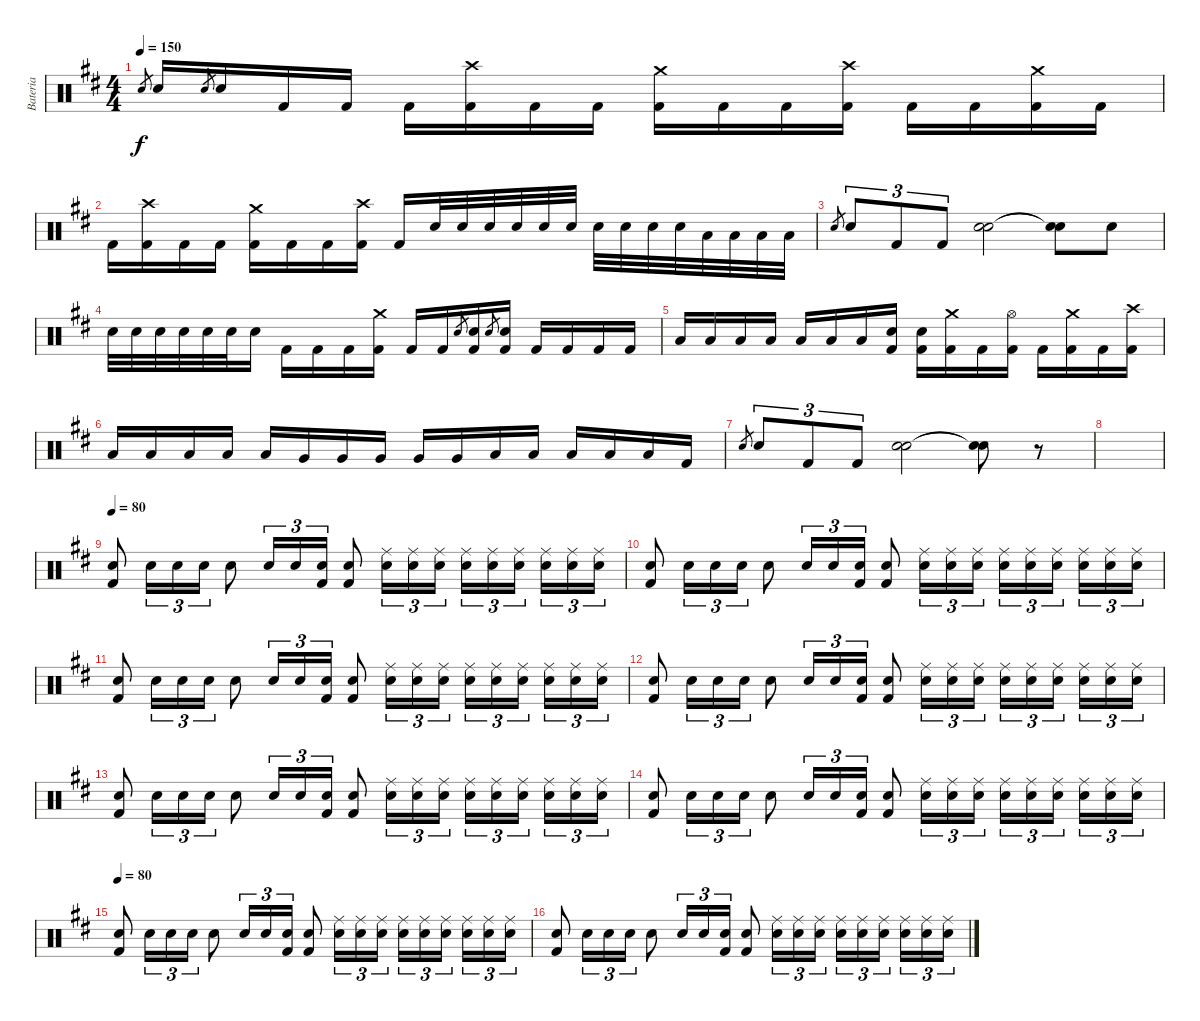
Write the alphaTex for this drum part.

\track ("Bateria" "Bateria") {instrument percussion}
\staff {score}
\articulation defaults
\ts (4 4)
\tempo 150
\clef neutral
\ks d "Electric Snare (hit)".8{gr dy f} "Electric Snare (hit)".16 "Electric Snare (hit)".8{gr} "Electric Snare (hit)".16 "Kick (hit) 2".16 "Kick (hit) 2".16 "Kick (hit) 2".16
("Crash high (hit)" "Kick (hit) 2").16 "Kick (hit) 2".16 "Kick (hit) 2".16 ("Crash medium (hit)" "Kick (hit) 2").16 "Kick (hit) 2".16 "Kick (hit) 2".16 ("Crash high (hit)" "Kick (hit) 2").16 "Kick (hit) 2".16 "Kick (hit) 2".16 ("Crash medium (hit)" "Kick (hit) 2").16 "Kick (hit) 2".16 |
"Kick (hit) 2".16 ("Crash high (hit)" "Kick (hit) 2").16 "Kick (hit) 2".16 "Kick (hit) 2".16 ("Crash medium (hit)" "Kick (hit) 2").16 "Kick (hit) 2".16 "Kick (hit) 2".16 ("Crash high (hit)" "Kick (hit) 2").16 "Kick (hit) 2".16 "Electric Snare (hit)".32 "Electric Snare (hit)".32 "Electric Snare (hit)".32 "Electric Snare (hit)".32 "Electric Snare (hit)".32 "Snare (hit) 2".32 "Snare (hit) 2".32 "Snare (hit) 2".32 "Snare (hit) 2".32 "Snare (hit) 2".32 "Low Floor Tom (hit)".32 "Low Floor Tom (hit)".32 "Low Floor Tom (hit)".32 "Low Floor Tom (hit)".32 |
"Electric Snare (hit)".8{gr} "Electric Snare (hit)".8{tu (3 2)} "Kick (hit) 2".8{tu (3 2)} "Kick (hit) 2".8{tu (3 2)} ("Electric Snare (hit)" "Snare (hit) 2").2 ("Snare (hit)"{t} "Snare (hit)"{t}).8 "Snare (hit) 2".8 |
"Electric Snare (hit)".32 "Electric Snare (hit)".32 "Electric Snare (hit)".32 "Electric Snare (hit)".32 "Electric Snare (hit)".32 "Electric Snare (hit)".32 "Electric Snare (hit)".16 "Kick (hit) 2".16 "Kick (hit) 2".16 "Kick (hit) 2".16 ("Crash medium (hit)" "Kick (hit) 2").16 "Kick (hit) 2".16 "Kick (hit) 2".16 "Electric Snare (hit)".8{gr} ("Electric Snare (hit)" "Kick (hit) 2").16 "Snare (hit) 2".8{gr} ("Snare (hit) 2" "Kick (hit) 2").16 "Kick (hit) 2".16 "Kick (hit) 2".16 "Kick (hit) 2".16 "Kick (hit) 2".16 |
"Low Floor Tom (hit)".16 "Low Floor Tom (hit)".16 "Low Floor Tom (hit)".16 "Low Floor Tom (hit)".16 "Low Floor Tom (hit)".16 "Low Floor Tom (hit)".16 "Low Floor Tom (hit)".16 ("Kick (hit) 2" "Electric Snare (hit)").16 ("Kick (hit) 2" "Electric Snare (hit)").16 ("Crash medium (hit)" "Kick (hit) 2").16 "Kick (hit) 2".16 ("Hi-Hat (open)" "Kick (hit) 2").16 "Kick (hit) 2".16 ("Crash medium (hit)" "Kick (hit) 2").16 "Kick (hit) 2".16 ("Crash high (hit)" "Kick (hit) 2").16 |
"Low Tom (hit)".16 "Low Tom (hit)".16 "Low Tom (hit)".16 "Low Tom (hit)".16 "Low Tom (hit)".16 "Very Low Tom (hit)".16 "Very Low Tom (hit)".16 "Very Low Tom (hit)".16 "Very Low Tom (hit)".16 "Very Low Tom (hit)".16 "Low Floor Tom (hit)".16 "Low Floor Tom (hit)".16 "Low Floor Tom (hit)".16 "Low Floor Tom (hit)".16 "Low Floor Tom (hit)".16 "Kick (hit) 2".16 |
"Electric Snare (hit)".8{gr} "Electric Snare (hit)".8{tu (3 2)} "Kick (hit) 2".8{tu (3 2)} "Kick (hit) 2".8{tu (3 2)} ("Electric Snare (hit)" "Snare (hit) 2").2 ("Snare (hit)"{t} "Snare (hit)"{t}).8 r.8{volume 0} |
|
\tempo 80
("Kick (hit) 2" "Electric Snare (hit)").8{volume 10} "Electric Snare (hit)".16{tu (3 2)} "Electric Snare (hit)".16{tu (3 2)} "Electric Snare (hit)".16{tu (3 2)} "Electric Snare (hit)".8 "Electric Snare (hit)".16{tu (3 2)} "Electric Snare (hit)".16{tu (3 2)} ("Kick (hit) 2" "Electric Snare (hit)").16{tu (3 2)} ("Kick (hit) 2" "Electric Snare (hit)").8 ("Ride (middle)" "Electric Snare (hit)").16{tu (3 2)} ("Ride (middle)" "Electric Snare (hit)").16{tu (3 2)} ("Ride (middle)" "Electric Snare (hit)").16{tu (3 2)} ("Ride (middle)" "Electric Snare (hit)").16{tu (3 2)} ("Ride (middle)" "Electric Snare (hit)").16{tu (3 2)} ("Ride (middle)" "Electric Snare (hit)").16{tu (3 2) beam splitsecondary} ("Ride (middle)" "Electric Snare (hit)").16{tu (3 2)} ("Ride (middle)" "Electric Snare (hit)").16{tu (3 2)} ("Ride (middle)" "Electric Snare (hit)").16{tu (3 2)} |
("Kick (hit) 2" "Electric Snare (hit)").8 "Electric Snare (hit)".16{tu (3 2)} "Electric Snare (hit)".16{tu (3 2)} "Electric Snare (hit)".16{tu (3 2)} "Electric Snare (hit)".8 "Electric Snare (hit)".16{tu (3 2)} "Electric Snare (hit)".16{tu (3 2)} ("Kick (hit) 2" "Electric Snare (hit)").16{tu (3 2)} ("Kick (hit) 2" "Electric Snare (hit)").8 ("Ride (middle)" "Electric Snare (hit)").16{tu (3 2)} ("Ride (middle)" "Electric Snare (hit)").16{tu (3 2)} ("Ride (middle)" "Electric Snare (hit)").16{tu (3 2)} ("Ride (middle)" "Electric Snare (hit)").16{tu (3 2)} ("Ride (middle)" "Electric Snare (hit)").16{tu (3 2)} ("Ride (middle)" "Electric Snare (hit)").16{tu (3 2) beam splitsecondary} ("Ride (middle)" "Electric Snare (hit)").16{tu (3 2)} ("Ride (middle)" "Electric Snare (hit)").16{tu (3 2)} ("Ride (middle)" "Electric Snare (hit)").16{tu (3 2)} |
("Kick (hit) 2" "Electric Snare (hit)").8 "Electric Snare (hit)".16{tu (3 2)} "Electric Snare (hit)".16{tu (3 2)} "Electric Snare (hit)".16{tu (3 2)} "Electric Snare (hit)".8 "Electric Snare (hit)".16{tu (3 2)} "Electric Snare (hit)".16{tu (3 2)} ("Kick (hit) 2" "Electric Snare (hit)").16{tu (3 2)} ("Kick (hit) 2" "Electric Snare (hit)").8 ("Ride (middle)" "Electric Snare (hit)").16{tu (3 2)} ("Ride (middle)" "Electric Snare (hit)").16{tu (3 2)} ("Ride (middle)" "Electric Snare (hit)").16{tu (3 2)} ("Ride (middle)" "Electric Snare (hit)").16{tu (3 2)} ("Ride (middle)" "Electric Snare (hit)").16{tu (3 2)} ("Ride (middle)" "Electric Snare (hit)").16{tu (3 2) beam splitsecondary} ("Ride (middle)" "Electric Snare (hit)").16{tu (3 2)} ("Ride (middle)" "Electric Snare (hit)").16{tu (3 2)} ("Ride (middle)" "Electric Snare (hit)").16{tu (3 2)} |
("Kick (hit) 2" "Electric Snare (hit)").8 "Electric Snare (hit)".16{tu (3 2)} "Electric Snare (hit)".16{tu (3 2)} "Electric Snare (hit)".16{tu (3 2)} "Electric Snare (hit)".8 "Electric Snare (hit)".16{tu (3 2)} "Electric Snare (hit)".16{tu (3 2)} ("Kick (hit) 2" "Electric Snare (hit)").16{tu (3 2)} ("Kick (hit) 2" "Electric Snare (hit)").8 ("Ride (middle)" "Electric Snare (hit)").16{tu (3 2)} ("Ride (middle)" "Electric Snare (hit)").16{tu (3 2)} ("Ride (middle)" "Electric Snare (hit)").16{tu (3 2)} ("Ride (middle)" "Electric Snare (hit)").16{tu (3 2)} ("Ride (middle)" "Electric Snare (hit)").16{tu (3 2)} ("Ride (middle)" "Electric Snare (hit)").16{tu (3 2) beam splitsecondary} ("Ride (middle)" "Electric Snare (hit)").16{tu (3 2)} ("Ride (middle)" "Electric Snare (hit)").16{tu (3 2)} ("Ride (middle)" "Electric Snare (hit)").16{tu (3 2)} |
("Kick (hit) 2" "Electric Snare (hit)").8 "Electric Snare (hit)".16{tu (3 2)} "Electric Snare (hit)".16{tu (3 2)} "Electric Snare (hit)".16{tu (3 2)} "Electric Snare (hit)".8 "Electric Snare (hit)".16{tu (3 2)} "Electric Snare (hit)".16{tu (3 2)} ("Kick (hit) 2" "Electric Snare (hit)").16{tu (3 2)} ("Kick (hit) 2" "Electric Snare (hit)").8 ("Ride (middle)" "Electric Snare (hit)").16{tu (3 2)} ("Ride (middle)" "Electric Snare (hit)").16{tu (3 2)} ("Ride (middle)" "Electric Snare (hit)").16{tu (3 2)} ("Ride (middle)" "Electric Snare (hit)").16{tu (3 2)} ("Ride (middle)" "Electric Snare (hit)").16{tu (3 2)} ("Ride (middle)" "Electric Snare (hit)").16{tu (3 2) beam splitsecondary} ("Ride (middle)" "Electric Snare (hit)").16{tu (3 2)} ("Ride (middle)" "Electric Snare (hit)").16{tu (3 2)} ("Ride (middle)" "Electric Snare (hit)").16{tu (3 2)} |
("Kick (hit) 2" "Electric Snare (hit)").8 "Electric Snare (hit)".16{tu (3 2)} "Electric Snare (hit)".16{tu (3 2)} "Electric Snare (hit)".16{tu (3 2)} "Electric Snare (hit)".8 "Electric Snare (hit)".16{tu (3 2)} "Electric Snare (hit)".16{tu (3 2)} ("Kick (hit) 2" "Electric Snare (hit)").16{tu (3 2)} ("Kick (hit) 2" "Electric Snare (hit)").8 ("Ride (middle)" "Electric Snare (hit)").16{tu (3 2)} ("Ride (middle)" "Electric Snare (hit)").16{tu (3 2)} ("Ride (middle)" "Electric Snare (hit)").16{tu (3 2)} ("Ride (middle)" "Electric Snare (hit)").16{tu (3 2)} ("Ride (middle)" "Electric Snare (hit)").16{tu (3 2)} ("Ride (middle)" "Electric Snare (hit)").16{tu (3 2) beam splitsecondary} ("Ride (middle)" "Electric Snare (hit)").16{tu (3 2)} ("Ride (middle)" "Electric Snare (hit)").16{tu (3 2)} ("Ride (middle)" "Electric Snare (hit)").16{tu (3 2)} |
\tempo 80
("Kick (hit) 2" "Electric Snare (hit)").8 "Electric Snare (hit)".16{tu (3 2)} "Electric Snare (hit)".16{tu (3 2)} "Electric Snare (hit)".16{tu (3 2)} "Electric Snare (hit)".8 "Electric Snare (hit)".16{tu (3 2)} "Electric Snare (hit)".16{tu (3 2)} ("Kick (hit) 2" "Electric Snare (hit)").16{tu (3 2)} ("Kick (hit) 2" "Electric Snare (hit)").8 ("Ride (middle)" "Electric Snare (hit)").16{tu (3 2)} ("Ride (middle)" "Electric Snare (hit)").16{tu (3 2)} ("Ride (middle)" "Electric Snare (hit)").16{tu (3 2)} ("Ride (middle)" "Electric Snare (hit)").16{tu (3 2)} ("Ride (middle)" "Electric Snare (hit)").16{tu (3 2)} ("Ride (middle)" "Electric Snare (hit)").16{tu (3 2) beam splitsecondary} ("Ride (middle)" "Electric Snare (hit)").16{tu (3 2)} ("Ride (middle)" "Electric Snare (hit)").16{tu (3 2)} ("Ride (middle)" "Electric Snare (hit)").16{tu (3 2)} |
("Kick (hit) 2" "Electric Snare (hit)").8 "Electric Snare (hit)".16{tu (3 2)} "Electric Snare (hit)".16{tu (3 2)} "Electric Snare (hit)".16{tu (3 2)} "Electric Snare (hit)".8 "Electric Snare (hit)".16{tu (3 2)} "Electric Snare (hit)".16{tu (3 2)} ("Kick (hit) 2" "Electric Snare (hit)").16{tu (3 2)} ("Kick (hit) 2" "Electric Snare (hit)").8 ("Ride (middle)" "Electric Snare (hit)").16{tu (3 2)} ("Ride (middle)" "Electric Snare (hit)").16{tu (3 2)} ("Ride (middle)" "Electric Snare (hit)").16{tu (3 2)} ("Ride (middle)" "Electric Snare (hit)").16{tu (3 2)} ("Ride (middle)" "Electric Snare (hit)").16{tu (3 2)} ("Ride (middle)" "Electric Snare (hit)").16{tu (3 2) beam splitsecondary} ("Ride (middle)" "Electric Snare (hit)").16{tu (3 2)} ("Ride (middle)" "Electric Snare (hit)").16{tu (3 2)} ("Ride (middle)" "Electric Snare (hit)").16{tu (3 2)}
